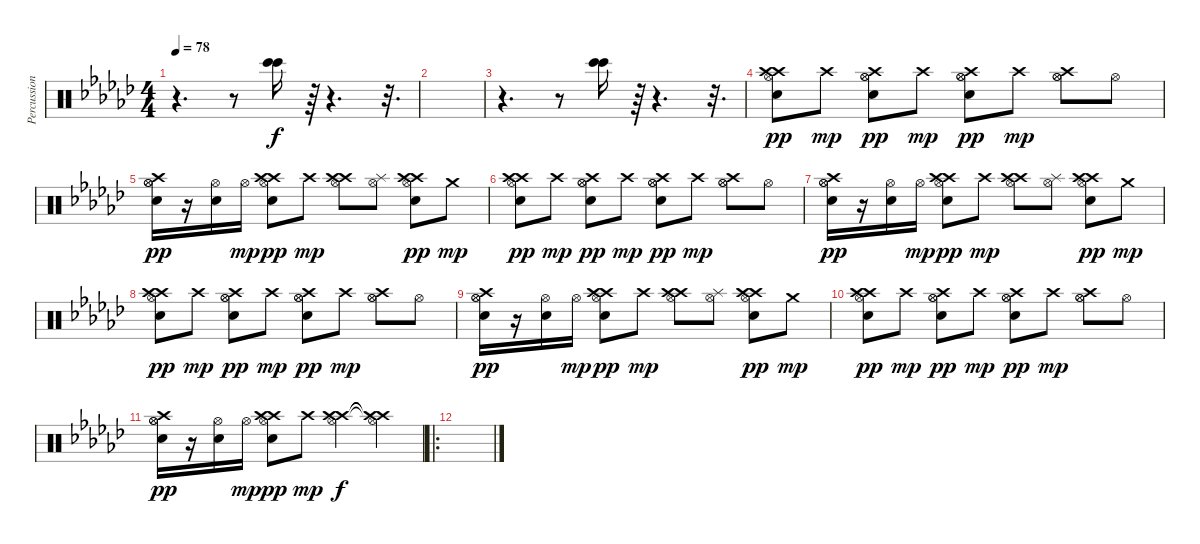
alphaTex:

\track ("Percussions" "Percussion") {instrument percussion}
\staff {score}
\articulation defaults
\ts (4 4)
\tempo 78
\clef neutral
\ks gb
r.4{d dy f} r.8 ("Bongo High (hit)" "Bongo High (hit)").16{bd 480} r.64 r.4{d} r.32{d} |
|
r.4{d} r.8 ("Bongo High (hit)" "Bongo High (hit)").16{bd 480} r.64 r.4{d} r.32{d} |
("Crash high (hit)" "Hi-Hat (open)" "Crash high (hit)" "Electric Snare (hit)").8{dy pp} "Crash high (hit)".8{dy mp} ("Crash high (hit)" "Hi-Hat (open)" "Hi-Hat (open)" "Snare (hit) 2").8{dy pp} "Crash high (hit)".8{dy mp} ("Crash high (hit)" "Hi-Hat (open)" "Hi-Hat (open)" "Electric Snare (hit)").8{dy pp} "Crash high (hit)".8{dy mp} ("Crash high (hit)" "Hi-Hat (open)" "Hi-Hat (open)").8 "Hi-Hat (open)".8 |
("Hi-Hat (open)" "Crash high (hit)" "Hi-Hat (open)" "Electric Snare (hit)").16{dy pp} r.16 ("Hi-Hat (open)" "Snare (hit) 2").16 "Hi-Hat (open)".16{dy mp} ("Crash high (hit)" "Hi-Hat (open)" "Crash high (hit)" "Electric Snare (hit)").8{dy pp} "Crash high (hit)".8{dy mp} ("Crash high (hit)" "Hi-Hat (open)" "Crash high (hit)").8 ("Splash (hit)" "Hi-Hat (open)").8 ("Crash high (hit)" "Hi-Hat (open)" "Crash high (hit)" "Electric Snare (hit)").8{dy pp} "Crash medium (hit)".8{dy mp} |
("Crash high (hit)" "Hi-Hat (open)" "Crash high (hit)" "Electric Snare (hit)").8{dy pp} "Crash high (hit)".8{dy mp} ("Crash high (hit)" "Hi-Hat (open)" "Hi-Hat (open)" "Snare (hit) 2").8{dy pp} "Crash high (hit)".8{dy mp} ("Crash high (hit)" "Hi-Hat (open)" "Hi-Hat (open)" "Electric Snare (hit)").8{dy pp} "Crash high (hit)".8{dy mp} ("Crash high (hit)" "Hi-Hat (open)" "Hi-Hat (open)").8 "Hi-Hat (open)".8 |
("Hi-Hat (open)" "Crash high (hit)" "Hi-Hat (open)" "Electric Snare (hit)").16{dy pp} r.16 ("Hi-Hat (open)" "Snare (hit) 2").16 "Hi-Hat (open)".16{dy mp} ("Crash high (hit)" "Hi-Hat (open)" "Crash high (hit)" "Electric Snare (hit)").8{dy pp} "Crash high (hit)".8{dy mp} ("Crash high (hit)" "Hi-Hat (open)" "Crash high (hit)").8 ("Splash (hit)" "Hi-Hat (open)").8 ("Crash high (hit)" "Hi-Hat (open)" "Crash high (hit)" "Electric Snare (hit)").8{dy pp} "Crash medium (hit)".8{dy mp} |
("Crash high (hit)" "Hi-Hat (open)" "Crash high (hit)" "Electric Snare (hit)").8{dy pp} "Crash high (hit)".8{dy mp} ("Crash high (hit)" "Hi-Hat (open)" "Hi-Hat (open)" "Snare (hit) 2").8{dy pp} "Crash high (hit)".8{dy mp} ("Crash high (hit)" "Hi-Hat (open)" "Hi-Hat (open)" "Electric Snare (hit)").8{dy pp} "Crash high (hit)".8{dy mp} ("Crash high (hit)" "Hi-Hat (open)" "Hi-Hat (open)").8 "Hi-Hat (open)".8 |
("Hi-Hat (open)" "Crash high (hit)" "Hi-Hat (open)" "Electric Snare (hit)").16{dy pp} r.16 ("Hi-Hat (open)" "Snare (hit) 2").16 "Hi-Hat (open)".16{dy mp} ("Crash high (hit)" "Hi-Hat (open)" "Crash high (hit)" "Electric Snare (hit)").8{dy pp} "Crash high (hit)".8{dy mp} ("Crash high (hit)" "Hi-Hat (open)" "Crash high (hit)").8 ("Splash (hit)" "Hi-Hat (open)").8 ("Crash high (hit)" "Hi-Hat (open)" "Crash high (hit)" "Electric Snare (hit)").8{dy pp} "Crash medium (hit)".8{dy mp} |
("Crash high (hit)" "Hi-Hat (open)" "Crash high (hit)" "Electric Snare (hit)").8{dy pp} "Crash high (hit)".8{dy mp} ("Crash high (hit)" "Hi-Hat (open)" "Hi-Hat (open)" "Snare (hit) 2").8{dy pp} "Crash high (hit)".8{dy mp} ("Crash high (hit)" "Hi-Hat (open)" "Hi-Hat (open)" "Electric Snare (hit)").8{dy pp} "Crash high (hit)".8{dy mp} ("Crash high (hit)" "Hi-Hat (open)" "Hi-Hat (open)").8 "Hi-Hat (open)".8 |
("Hi-Hat (open)" "Crash high (hit)" "Hi-Hat (open)" "Electric Snare (hit)").16{dy pp} r.16 ("Hi-Hat (open)" "Snare (hit) 2").16 "Hi-Hat (open)".16{dy mp} ("Crash high (hit)" "Hi-Hat (open)" "Crash high (hit)" "Electric Snare (hit)").8{dy pp} "Crash high (hit)".8{dy mp} ("Crash high (hit)" "Hi-Hat (open)" "Crash high (hit)").4{dy f} ("Crash high (hit)"{t} "Hi-Hat (open)"{t} "Crash high (hit)"{t}).4 |
\ro
